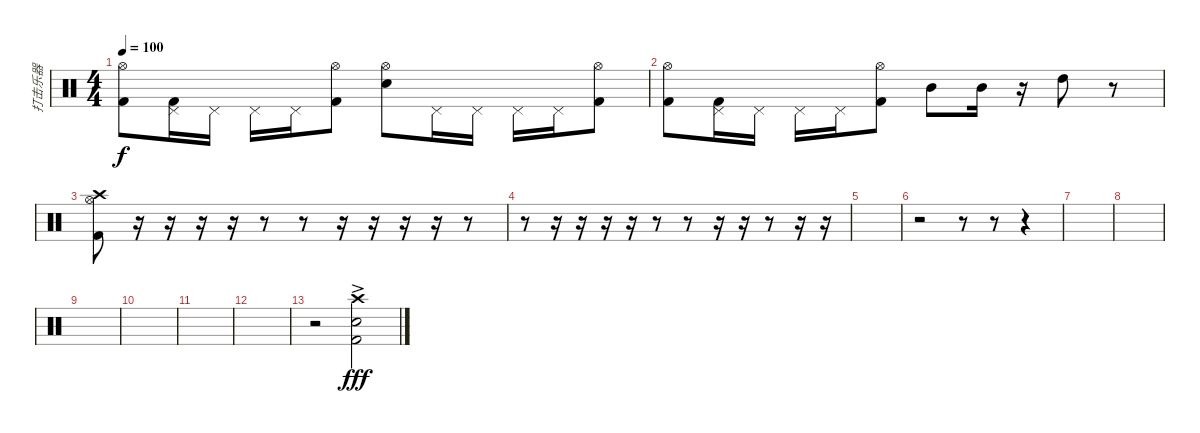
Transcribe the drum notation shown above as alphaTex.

\track ("打击乐器" "打击乐器") {instrument percussion}
\staff {score}
\articulation defaults
\ts (4 4)
\tempo 100
\clef neutral
\ks c
("Hi-Hat (open)" "Kick (hit) 2").8{dy f} ("Pedal Hi-Hat (hit)" "Kick (hit) 2").16 "Pedal Hi-Hat (hit)".16 "Pedal Hi-Hat (hit)".16 "Pedal Hi-Hat (hit)".16 ("Hi-Hat (open)" "Kick (hit) 2").8 ("Hi-Hat (open)" "Electric Snare (hit)").8 "Pedal Hi-Hat (hit)".16 "Pedal Hi-Hat (hit)".16 "Pedal Hi-Hat (hit)".16 "Pedal Hi-Hat (hit)".16 ("Hi-Hat (open)" "Kick (hit) 2").8 |
("Hi-Hat (open)" "Kick (hit) 2").8 ("Pedal Hi-Hat (hit)" "Kick (hit) 2").16 "Pedal Hi-Hat (hit)".16 "Pedal Hi-Hat (hit)".16 "Pedal Hi-Hat (hit)".16 ("Hi-Hat (open)" "Kick (hit) 2").8 "Mid Tom (hit)".8 "Mid Tom (hit)".16 r.16 "High Tom (hit)".8 r.8 |
("Crash high (hit)" "Hi-Hat (open)" "Kick (hit) 2").8 r.16 r.16 r.16 r.16 r.8 r.8 r.16 r.16 r.16 r.16 r.8 |
r.8 r.16 r.16 r.16 r.16 r.8 r.8 r.16 r.16 r.8 r.16 r.16 |
|
r.2 r.8 r.8 r.4 |
|
|
|
|
|
|
r.2 ("Crash high (hit)" "Electric Snare (hit)" "Kick (hit) 2"{ac}).2{dy fff}
